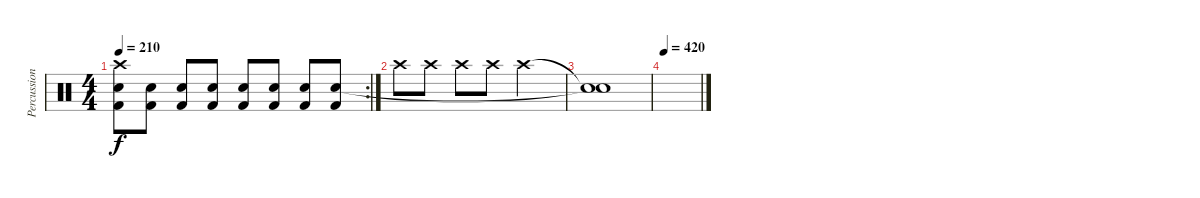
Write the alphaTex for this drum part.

\track ("Percussion" "Percussion") {instrument percussion}
\staff {score}
\articulation defaults
\rc 2
\ts (4 4)
\tempo 210
\clef neutral
\ks c
("Kick (hit) 2" "Snare (hit) 2" "Crash high (hit)").8{dy f} ("Kick (hit) 2" "Snare (hit) 2").8 ("Kick (hit) 2" "Snare (hit) 2").8 ("Kick (hit) 2" "Snare (hit) 2").8 ("Kick (hit) 2" "Snare (hit) 2").8 ("Kick (hit) 2" "Snare (hit) 2").8 ("Kick (hit) 2" "Snare (hit) 2").8 ("Kick (hit) 2" "Snare (hit) 2").8 |
"Crash high (hit)".8 "Crash high (hit)".8 "Crash high (hit)".8 "Crash high (hit)".8 "Crash high (hit)".2 |
("Snare (hit)"{t} "Snare (hit)"{t}).1 |
\tempo 420
